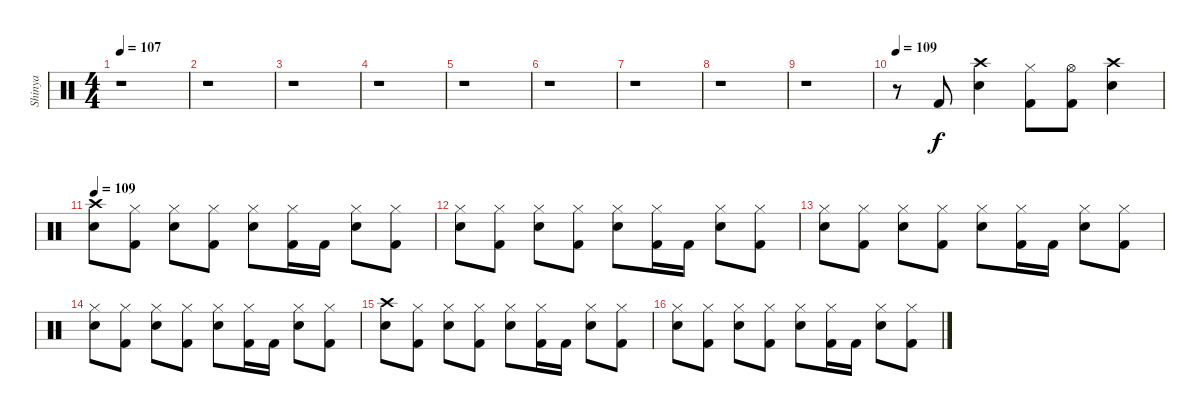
\track ("Shinya" "Shinya") {instrument percussion}
\staff {score}
\articulation defaults
\ts (4 4)
\tempo 107
\tempo 75
\tempo 107
\clef neutral
\ks c
r.1{dy f} |
r.1 |
r.1 |
r.1 |
r.1 |
r.1 |
r.1 |
r.1 |
r.1 |
\tempo 109
r.8 "Kick (hit) 2".8 ("Crash high (hit)" "Snare (hit) 2").4 ("Hi-Hat (closed)" "Kick (hit) 2").8 ("Hi-Hat (open)" "Kick (hit) 2").8 ("Crash high (hit)" "Snare (hit) 2").4 |
\tempo 109
("Crash high (hit)" "Snare (hit) 2").8 ("Hi-Hat (closed)" "Kick (hit) 2").8 ("Hi-Hat (closed)" "Snare (hit) 2").8 ("Hi-Hat (closed)" "Kick (hit) 2").8 ("Hi-Hat (closed)" "Snare (hit) 2").8 ("Hi-Hat (closed)" "Kick (hit) 2").16 "Kick (hit) 2".16 ("Hi-Hat (closed)" "Snare (hit) 2").8 ("Hi-Hat (closed)" "Kick (hit) 2").8 |
("Hi-Hat (closed)" "Snare (hit) 2").8 ("Hi-Hat (closed)" "Kick (hit) 2").8 ("Hi-Hat (closed)" "Snare (hit) 2").8 ("Hi-Hat (closed)" "Kick (hit) 2").8 ("Hi-Hat (closed)" "Snare (hit) 2").8 ("Hi-Hat (closed)" "Kick (hit) 2").16 "Kick (hit) 2".16 ("Hi-Hat (closed)" "Snare (hit) 2").8 ("Hi-Hat (closed)" "Kick (hit) 2").8 |
("Hi-Hat (closed)" "Snare (hit) 2").8 ("Hi-Hat (closed)" "Kick (hit) 2").8 ("Hi-Hat (closed)" "Snare (hit) 2").8 ("Hi-Hat (closed)" "Kick (hit) 2").8 ("Hi-Hat (closed)" "Snare (hit) 2").8 ("Hi-Hat (closed)" "Kick (hit) 2").16 "Kick (hit) 2".16 ("Hi-Hat (closed)" "Snare (hit) 2").8 ("Hi-Hat (closed)" "Kick (hit) 2").8 |
("Hi-Hat (closed)" "Snare (hit) 2").8 ("Hi-Hat (closed)" "Kick (hit) 2").8 ("Hi-Hat (closed)" "Snare (hit) 2").8 ("Hi-Hat (closed)" "Kick (hit) 2").8 ("Hi-Hat (closed)" "Snare (hit) 2").8 ("Hi-Hat (closed)" "Kick (hit) 2").16 "Kick (hit) 2".16 ("Hi-Hat (closed)" "Snare (hit) 2").8 ("Hi-Hat (closed)" "Kick (hit) 2").8 |
("Crash high (hit)" "Snare (hit) 2").8 ("Hi-Hat (closed)" "Kick (hit) 2").8 ("Hi-Hat (closed)" "Snare (hit) 2").8 ("Hi-Hat (closed)" "Kick (hit) 2").8 ("Hi-Hat (closed)" "Snare (hit) 2").8 ("Hi-Hat (closed)" "Kick (hit) 2").16 "Kick (hit) 2".16 ("Hi-Hat (closed)" "Snare (hit) 2").8 ("Hi-Hat (closed)" "Kick (hit) 2").8 |
("Hi-Hat (closed)" "Snare (hit) 2").8 ("Hi-Hat (closed)" "Kick (hit) 2").8 ("Hi-Hat (closed)" "Snare (hit) 2").8 ("Hi-Hat (closed)" "Kick (hit) 2").8 ("Hi-Hat (closed)" "Snare (hit) 2").8 ("Hi-Hat (closed)" "Kick (hit) 2").16 "Kick (hit) 2".16 ("Hi-Hat (closed)" "Snare (hit) 2").8 ("Hi-Hat (closed)" "Kick (hit) 2").8
